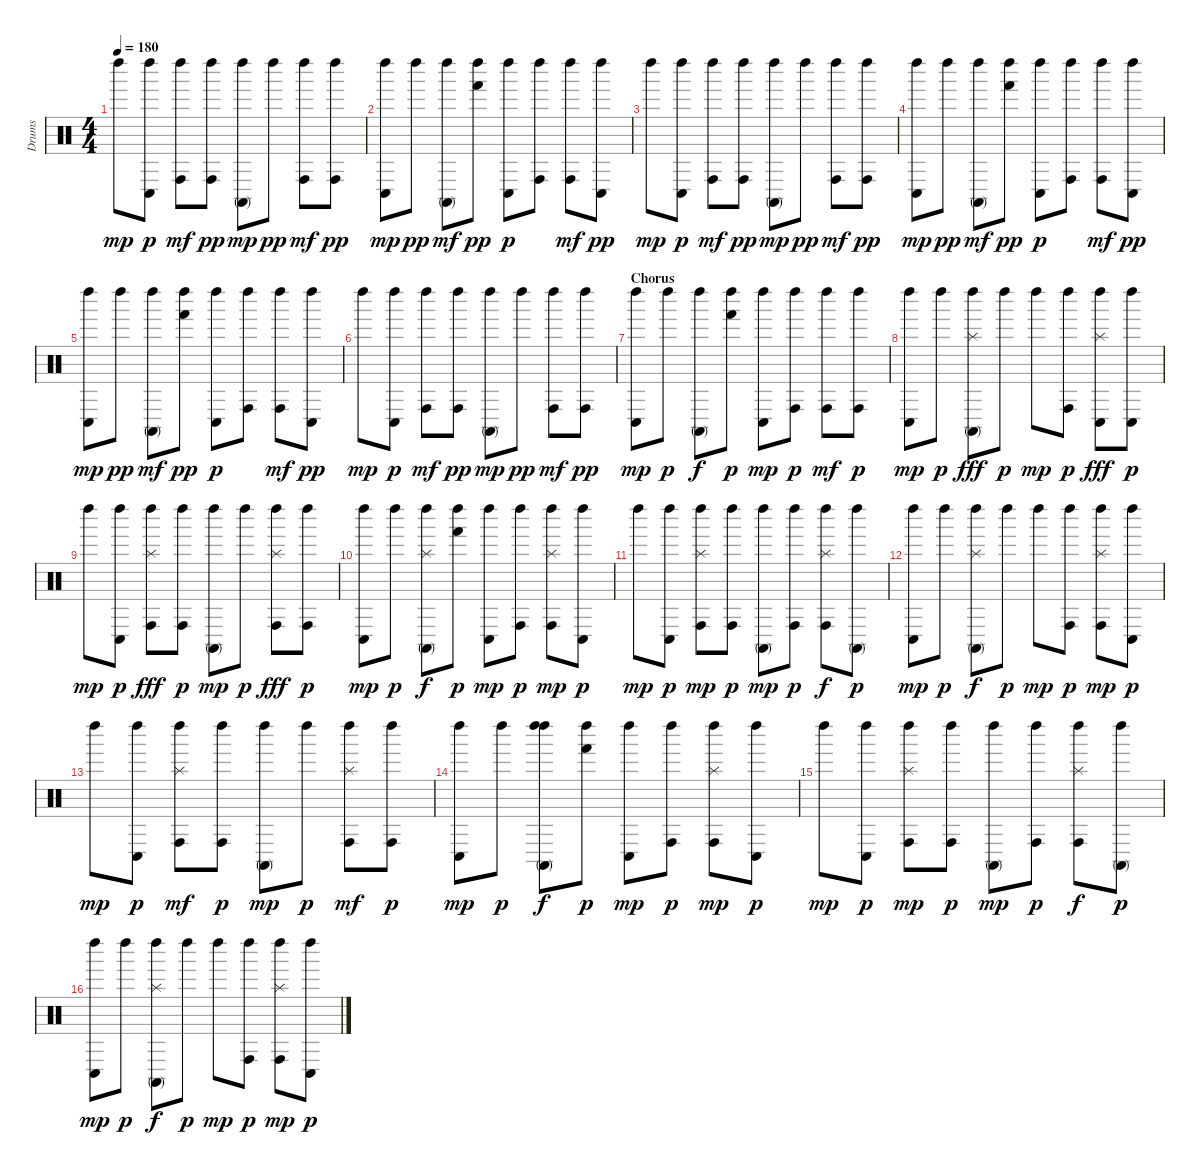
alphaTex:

\track ("Drums" "Drums") {instrument percussion}
\staff {score}
\articulation defaults
\ts (4 4)
\tempo 180
\clef neutral
\ks c "Left Maraca (hit)".8{dy mp}
("Left Maraca (hit)" "Conga low (hit)").8{dy p} ("Left Maraca (hit)" "Conga high (hit)").8{dy mf} ("Left Maraca (hit)" "Conga high (hit)").8{dy pp} ("Left Maraca (hit)" "Conga high (mute)").8{dy mp} "Left Maraca (hit)".8{dy pp} ("Left Maraca (hit)" "Conga high (hit)").8{dy mf} ("Left Maraca (hit)" "Conga high (hit)").8{dy pp} |
("Left Maraca (hit)" "Conga low (hit)").8{dy mp} "Left Maraca (hit)".8{dy pp} ("Left Maraca (hit)" "Conga high (mute)").8{dy mf} ("Left Maraca (hit)" "Hand (hit)").8{dy pp} ("Left Maraca (hit)" "Conga low (hit)").8{dy p} ("Left Maraca (hit)" "Conga high (hit)").8 ("Left Maraca (hit)" "Conga high (hit)").8{dy mf} ("Left Maraca (hit)" "Conga low (hit)").8{dy pp} |
"Left Maraca (hit)".8{dy mp} ("Left Maraca (hit)" "Conga low (hit)").8{dy p} ("Left Maraca (hit)" "Conga high (hit)").8{dy mf} ("Left Maraca (hit)" "Conga high (hit)").8{dy pp} ("Left Maraca (hit)" "Conga high (mute)").8{dy mp} "Left Maraca (hit)".8{dy pp} ("Left Maraca (hit)" "Conga high (hit)").8{dy mf} ("Left Maraca (hit)" "Conga high (hit)").8{dy pp} |
("Left Maraca (hit)" "Conga low (hit)").8{dy mp} "Left Maraca (hit)".8{dy pp} ("Left Maraca (hit)" "Conga high (mute)").8{dy mf} ("Left Maraca (hit)" "Hand (hit)").8{dy pp} ("Left Maraca (hit)" "Conga low (hit)").8{dy p} ("Left Maraca (hit)" "Conga high (hit)").8 ("Left Maraca (hit)" "Conga high (hit)").8{dy mf} ("Left Maraca (hit)" "Conga low (hit)").8{dy pp} |
("Left Maraca (hit)" "Conga low (hit)").8{dy mp} "Left Maraca (hit)".8{dy pp} ("Left Maraca (hit)" "Conga high (mute)").8{dy mf} ("Left Maraca (hit)" "Hand (hit)").8{dy pp} ("Left Maraca (hit)" "Conga low (hit)").8{dy p} ("Left Maraca (hit)" "Conga high (hit)").8 ("Left Maraca (hit)" "Conga high (hit)").8{dy mf} ("Left Maraca (hit)" "Conga low (hit)").8{dy pp} |
"Left Maraca (hit)".8{dy mp} ("Left Maraca (hit)" "Conga low (hit)").8{dy p} ("Left Maraca (hit)" "Conga high (hit)").8{dy mf} ("Left Maraca (hit)" "Conga high (hit)").8{dy pp} ("Left Maraca (hit)" "Conga high (mute)").8{dy mp} "Left Maraca (hit)".8{dy pp} ("Left Maraca (hit)" "Conga high (hit)").8{dy mf} ("Left Maraca (hit)" "Conga high (hit)").8{dy pp} |
\section ("" "Chorus")
("Left Maraca (hit)" "Conga low (hit)").8{dy mp} "Left Maraca (hit)".8{dy p} ("Left Maraca (hit)" "Conga high (mute)").8{dy f} ("Left Maraca (hit)" "Hand (hit)").8{dy p} ("Left Maraca (hit)" "Conga low (hit)").8{dy mp} ("Left Maraca (hit)" "Conga high (hit)").8{dy p} ("Left Maraca (hit)" "Conga high (hit)").8{dy mf} ("Left Maraca (hit)" "Conga high (hit)").8{dy p} |
("Left Maraca (hit)" "Conga low (hit)").8{dy mp} "Left Maraca (hit)".8{dy p} ("Left Maraca (hit)" "Conga high (mute)" "Splash (hit)").8{dy fff} "Left Maraca (hit)".8{dy p} "Left Maraca (hit)".8{dy mp} ("Left Maraca (hit)" "Conga high (hit)").8{dy p} ("Left Maraca (hit)" "Conga low (hit)" "Splash (hit)").8{dy fff} ("Left Maraca (hit)" "Conga low (hit)").8{dy p} |
"Left Maraca (hit)".8{dy mp} ("Left Maraca (hit)" "Conga low (hit)").8{dy p} ("Left Maraca (hit)" "Conga high (hit)" "Splash (hit)").8{dy fff} ("Left Maraca (hit)" "Conga high (hit)").8{dy p} ("Left Maraca (hit)" "Conga high (mute)").8{dy mp} "Left Maraca (hit)".8{dy p} ("Left Maraca (hit)" "Conga high (hit)" "Splash (hit)").8{dy fff} ("Left Maraca (hit)" "Conga high (hit)").8{dy p} |
("Left Maraca (hit)" "Conga low (hit)").8{dy mp} "Left Maraca (hit)".8{dy p} ("Left Maraca (hit)" "Conga high (mute)" "Splash (hit)").8{dy f} ("Left Maraca (hit)" "Hand (hit)").8{dy p} ("Left Maraca (hit)" "Conga low (hit)").8{dy mp} ("Left Maraca (hit)" "Conga high (hit)").8{dy p} ("Left Maraca (hit)" "Conga high (hit)" "Splash (hit)").8{dy mp} ("Left Maraca (hit)" "Conga low (hit)").8{dy p} |
"Left Maraca (hit)".8{dy mp} ("Left Maraca (hit)" "Conga low (hit)").8{dy p} ("Left Maraca (hit)" "Conga high (hit)" "Splash (hit)").8{dy mp} ("Left Maraca (hit)" "Conga high (hit)").8{dy p} ("Left Maraca (hit)" "Conga high (mute)").8{dy mp} ("Left Maraca (hit)" "Conga high (hit)").8{dy p} ("Left Maraca (hit)" "Conga high (hit)" "Splash (hit)").8{dy f} ("Left Maraca (hit)" "Conga high (mute)").8{dy p} |
("Left Maraca (hit)" "Conga low (hit)").8{dy mp} "Left Maraca (hit)".8{dy p} ("Left Maraca (hit)" "Conga high (mute)" "Splash (hit)").8{dy f} "Left Maraca (hit)".8{dy p} "Left Maraca (hit)".8{dy mp} ("Left Maraca (hit)" "Conga high (hit)").8{dy p} ("Left Maraca (hit)" "Conga high (hit)" "Splash (hit)").8{dy mp} ("Left Maraca (hit)" "Conga low (hit)").8{dy p} |
"Left Maraca (hit)".8{dy mp} ("Left Maraca (hit)" "Conga low (hit)").8{dy p} ("Left Maraca (hit)" "Conga high (hit)" "Splash (hit)").8{dy mf} ("Left Maraca (hit)" "Conga high (hit)").8{dy p} ("Left Maraca (hit)" "Conga high (mute)").8{dy mp} "Left Maraca (hit)".8{dy p} ("Left Maraca (hit)" "Conga high (hit)" "Splash (hit)").8{dy mf} ("Left Maraca (hit)" "Conga high (hit)").8{dy p} |
("Left Maraca (hit)" "Conga low (hit)").8{dy mp} "Left Maraca (hit)".8{dy p} ("Left Maraca (hit)" "Conga high (mute)" "Left Maraca (hit)").8{dy f} ("Left Maraca (hit)" "Hand (hit)").8{dy p} ("Left Maraca (hit)" "Conga low (hit)").8{dy mp} ("Left Maraca (hit)" "Conga high (hit)").8{dy p} ("Left Maraca (hit)" "Conga high (hit)" "Splash (hit)").8{dy mp} ("Left Maraca (hit)" "Conga low (hit)").8{dy p} |
"Left Maraca (hit)".8{dy mp} ("Left Maraca (hit)" "Conga low (hit)").8{dy p} ("Left Maraca (hit)" "Conga high (hit)" "Splash (hit)").8{dy mp} ("Left Maraca (hit)" "Conga high (hit)").8{dy p} ("Left Maraca (hit)" "Conga high (mute)").8{dy mp} ("Left Maraca (hit)" "Conga high (hit)").8{dy p} ("Left Maraca (hit)" "Conga high (hit)" "Splash (hit)").8{dy f} ("Left Maraca (hit)" "Conga high (mute)").8{dy p} |
("Left Maraca (hit)" "Conga low (hit)").8{dy mp} "Left Maraca (hit)".8{dy p} ("Left Maraca (hit)" "Conga high (mute)" "Splash (hit)").8{dy f} "Left Maraca (hit)".8{dy p} "Left Maraca (hit)".8{dy mp} ("Left Maraca (hit)" "Conga high (hit)").8{dy p} ("Left Maraca (hit)" "Conga high (hit)" "Splash (hit)").8{dy mp} ("Left Maraca (hit)" "Conga low (hit)").8{dy p}
